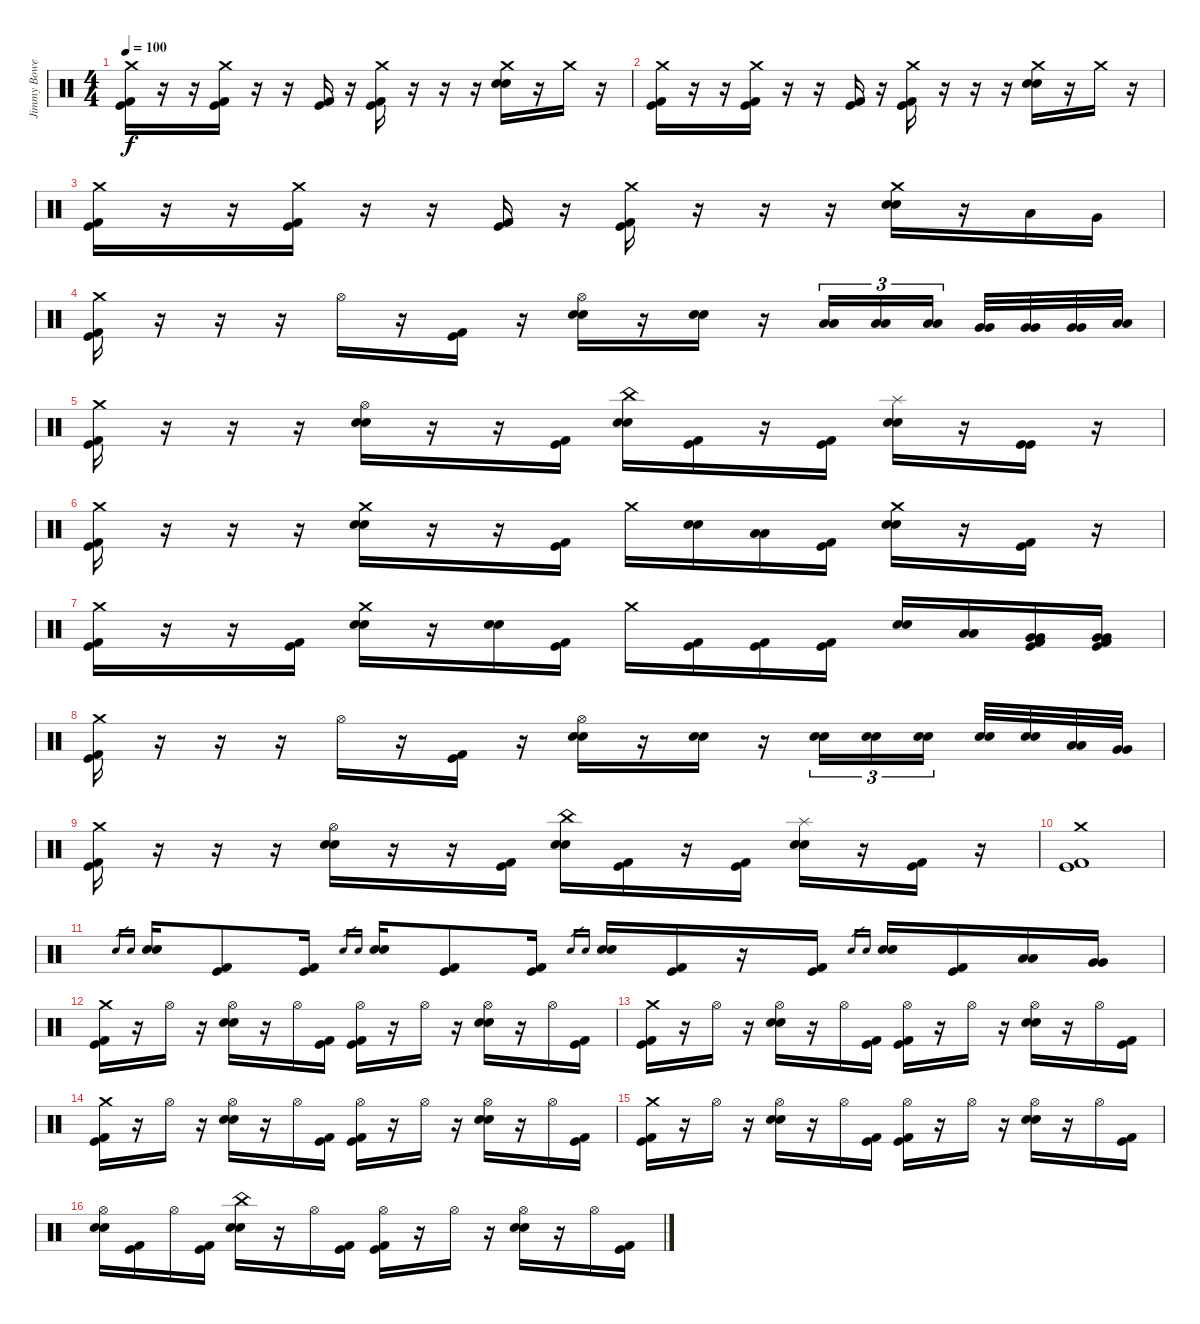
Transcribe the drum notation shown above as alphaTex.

\track ("Jimmy Bower" "Jimmy Bowe") {instrument percussion}
\staff {score}
\articulation defaults
\ts (4 4)
\tempo 100
\clef neutral
\ks c
("Crash medium (hit)" "Kick (hit) 2" "Kick (hit)").16{dy f} r.16 r.16 ("Crash medium (hit)" "Kick (hit)" "Kick (hit) 2").16 r.16 r.16 ("Kick (hit) 2" "Kick (hit)").16 r.16 ("Crash medium (hit)" "Kick (hit)" "Kick (hit) 2").16 r.16 r.16 r.16 ("Crash medium (hit)" "Electric Snare (hit)" "Electric Snare (hit)").16 r.16 "Crash medium (hit)".16 r.16 |
("Crash medium (hit)" "Kick (hit) 2" "Kick (hit)").16 r.16 r.16 ("Crash medium (hit)" "Kick (hit)" "Kick (hit) 2").16 r.16 r.16 ("Kick (hit) 2" "Kick (hit)").16 r.16 ("Crash medium (hit)" "Kick (hit)" "Kick (hit) 2").16 r.16 r.16 r.16 ("Crash medium (hit)" "Electric Snare (hit)" "Electric Snare (hit)").16 r.16 "Crash medium (hit)".16 r.16 |
("Crash medium (hit)" "Kick (hit) 2" "Kick (hit)").16 r.16 r.16 ("Crash medium (hit)" "Kick (hit)" "Kick (hit) 2").16 r.16 r.16 ("Kick (hit) 2" "Kick (hit)").16 r.16 ("Crash medium (hit)" "Kick (hit)" "Kick (hit) 2").16 r.16 r.16 r.16 ("Crash medium (hit)" "Electric Snare (hit)" "Electric Snare (hit)").16 r.16 "Low Tom (hit)".16 "Very Low Tom (hit)".16 |
("Crash medium (hit)" "Kick (hit) 2" "Kick (hit)").16 r.16 r.16 r.16 "Hi-Hat (open)".16 r.16 ("Kick (hit) 2" "Kick (hit)").16 r.16 ("Hi-Hat (open)" "Electric Snare (hit)" "Electric Snare (hit)").16 r.16 ("Electric Snare (hit)" "Electric Snare (hit)").16 r.16 ("Low Tom (hit)" "Low Tom (hit)").16{tu (3 2)} ("Low Tom (hit)" "Low Tom (hit)").16{tu (3 2)} ("Low Tom (hit)" "Low Tom (hit)").16{tu (3 2) beam splitsecondary} ("Very Low Tom (hit)" "Very Low Tom (hit)").32 ("Very Low Tom (hit)" "Very Low Tom (hit)").32 ("Very Low Tom (hit)" "Very Low Tom (hit)").32 ("Low Floor Tom (hit)" "Low Floor Tom (hit)").32 |
("Crash medium (hit)" "Kick (hit) 2" "Kick (hit)").16 r.16 r.16 r.16 ("Hi-Hat (open)" "Electric Snare (hit)" "Electric Snare (hit)").16 r.16 r.16 ("Kick (hit) 2" "Kick (hit)").16 ("China (hit)" "Electric Snare (hit)" "Electric Snare (hit)").16 ("Kick (hit) 2" "Kick (hit)").16 r.16 ("Kick (hit) 2" "Kick (hit)").16 ("Splash (hit)" "Electric Snare (hit)" "Electric Snare (hit)").16 r.16 ("Kick (hit)" "Kick (hit)").16 r.16 |
("Crash medium (hit)" "Kick (hit) 2" "Kick (hit)").16 r.16 r.16 r.16 ("Crash medium (hit)" "Electric Snare (hit)" "Electric Snare (hit)").16 r.16 r.16 ("Kick (hit) 2" "Kick (hit)").16 "Crash medium (hit)".16 ("Electric Snare (hit)" "Electric Snare (hit)").16 ("Low Tom (hit)" "Low Tom (hit)").16 ("Kick (hit)" "Kick (hit) 2").16 ("Crash medium (hit)" "Electric Snare (hit)" "Electric Snare (hit)").16 r.16 ("Kick (hit) 2" "Kick (hit)").16 r.16 |
("Crash medium (hit)" "Kick (hit) 2" "Kick (hit)").16 r.16 r.16 ("Kick (hit) 2" "Kick (hit)").16 ("Crash medium (hit)" "Electric Snare (hit)" "Electric Snare (hit)").16 r.16 ("Electric Snare (hit)" "Electric Snare (hit)").16 ("Kick (hit) 2" "Kick (hit)").16 "Crash medium (hit)".16 ("Kick (hit) 2" "Kick (hit)").16 ("Kick (hit) 2" "Kick (hit)").16 ("Kick (hit) 2" "Kick (hit)").16 ("Electric Snare (hit)" "Electric Snare (hit)").16 ("Low Tom (hit)" "Low Tom (hit)").16 ("Very Low Tom (hit)" "Very Low Tom (hit)" "Kick (hit) 2" "Kick (hit)").16 ("Very Low Tom (hit)" "Very Low Tom (hit)" "Kick (hit) 2" "Kick (hit)").16 |
("Crash medium (hit)" "Kick (hit) 2" "Kick (hit)").16 r.16 r.16 r.16 "Hi-Hat (open)".16 r.16 ("Kick (hit) 2" "Kick (hit)").16 r.16 ("Hi-Hat (open)" "Electric Snare (hit)" "Electric Snare (hit)").16 r.16 ("Electric Snare (hit)" "Electric Snare (hit)").16 r.16 ("Electric Snare (hit)" "Electric Snare (hit)").16{tu (3 2)} ("Electric Snare (hit)" "Electric Snare (hit)").16{tu (3 2)} ("Electric Snare (hit)" "Electric Snare (hit)").16{tu (3 2) beam splitsecondary} ("Electric Snare (hit)" "Electric Snare (hit)").32 ("Electric Snare (hit)" "Electric Snare (hit)").32 ("Low Tom (hit)" "Low Tom (hit)").32 ("Very Low Tom (hit)" "Very Low Tom (hit)").32 |
("Crash medium (hit)" "Kick (hit)" "Kick (hit) 2").16 r.16 r.16 r.16 ("Hi-Hat (open)" "Electric Snare (hit)" "Electric Snare (hit)").16 r.16 r.16 ("Kick (hit) 2" "Kick (hit)").16 ("China (hit)" "Electric Snare (hit)" "Electric Snare (hit)").16 ("Kick (hit) 2" "Kick (hit)").16 r.16 ("Kick (hit) 2" "Kick (hit)").16 ("Splash (hit)" "Electric Snare (hit)" "Electric Snare (hit)").16 r.16 ("Kick (hit) 2" "Kick (hit)").16 r.16 |
("Crash medium (hit)" "Kick (hit) 2" "Kick (hit)").1 |
"Electric Snare (hit)".16{gr} "Electric Snare (hit)".16{gr} ("Electric Snare (hit)" "Electric Snare (hit)").16 ("Kick (hit) 2" "Kick (hit)").8 ("Kick (hit) 2" "Kick (hit)").16 "Electric Snare (hit)".16{gr} "Electric Snare (hit)".16{gr} ("Electric Snare (hit)" "Electric Snare (hit)").16 ("Kick (hit) 2" "Kick (hit)").8 ("Kick (hit) 2" "Kick (hit)").16 "Electric Snare (hit)".16{gr} "Electric Snare (hit)".16{gr} ("Electric Snare (hit)" "Electric Snare (hit)").16 ("Kick (hit) 2" "Kick (hit)").16 r.16 ("Kick (hit) 2" "Kick (hit)").16 "Electric Snare (hit)".16{gr} "Electric Snare (hit)".16{gr} ("Electric Snare (hit)" "Electric Snare (hit)").16 ("Kick (hit) 2" "Kick (hit)").16 ("Low Tom (hit)" "Low Tom (hit)").16 ("Very Low Tom (hit)" "Very Low Tom (hit)").16 |
("Crash medium (hit)" "Kick (hit) 2" "Kick (hit)").16 r.16 "Hi-Hat (open)".16 r.16 ("Hi-Hat (open)" "Electric Snare (hit)" "Electric Snare (hit)").16 r.16 "Hi-Hat (open)".16 ("Kick (hit) 2" "Kick (hit)").16 ("Hi-Hat (open)" "Kick (hit) 2" "Kick (hit)").16 r.16 "Hi-Hat (open)".16 r.16 ("Hi-Hat (open)" "Electric Snare (hit)" "Electric Snare (hit)").16 r.16 "Hi-Hat (open)".16 ("Kick (hit) 2" "Kick (hit)").16 |
("Crash medium (hit)" "Kick (hit) 2" "Kick (hit)").16 r.16 "Hi-Hat (open)".16 r.16 ("Hi-Hat (open)" "Electric Snare (hit)" "Electric Snare (hit)").16 r.16 "Hi-Hat (open)".16 ("Kick (hit) 2" "Kick (hit)").16 ("Hi-Hat (open)" "Kick (hit) 2" "Kick (hit)").16 r.16 "Hi-Hat (open)".16 r.16 ("Hi-Hat (open)" "Electric Snare (hit)" "Electric Snare (hit)").16 r.16 "Hi-Hat (open)".16 ("Kick (hit) 2" "Kick (hit)").16 |
("Crash medium (hit)" "Kick (hit) 2" "Kick (hit)").16 r.16 "Hi-Hat (open)".16 r.16 ("Hi-Hat (open)" "Electric Snare (hit)" "Electric Snare (hit)").16 r.16 "Hi-Hat (open)".16 ("Kick (hit) 2" "Kick (hit)").16 ("Hi-Hat (open)" "Kick (hit) 2" "Kick (hit)").16 r.16 "Hi-Hat (open)".16 r.16 ("Hi-Hat (open)" "Electric Snare (hit)" "Electric Snare (hit)").16 r.16 "Hi-Hat (open)".16 ("Kick (hit) 2" "Kick (hit)").16 |
("Crash medium (hit)" "Kick (hit) 2" "Kick (hit)").16 r.16 "Hi-Hat (open)".16 r.16 ("Hi-Hat (open)" "Electric Snare (hit)" "Electric Snare (hit)").16 r.16 "Hi-Hat (open)".16 ("Kick (hit) 2" "Kick (hit)").16 ("Hi-Hat (open)" "Kick (hit) 2" "Kick (hit)").16 r.16 "Hi-Hat (open)".16 r.16 ("Hi-Hat (open)" "Electric Snare (hit)" "Electric Snare (hit)").16 r.16 "Hi-Hat (open)".16 ("Kick (hit) 2" "Kick (hit)").16 |
("Hi-Hat (open)" "Electric Snare (hit)" "Electric Snare (hit)").16 ("Kick (hit) 2" "Kick (hit)").16 "Hi-Hat (open)".16 ("Kick (hit) 2" "Kick (hit)").16 ("China (hit)" "Electric Snare (hit)" "Electric Snare (hit)").16 r.16 "Hi-Hat (open)".16 ("Kick (hit) 2" "Kick (hit)").16 ("Hi-Hat (open)" "Kick (hit) 2" "Kick (hit)").16 r.16 "Hi-Hat (open)".16 r.16 ("Hi-Hat (open)" "Electric Snare (hit)" "Electric Snare (hit)").16 r.16 "Hi-Hat (open)".16 ("Kick (hit) 2" "Kick (hit)").16
